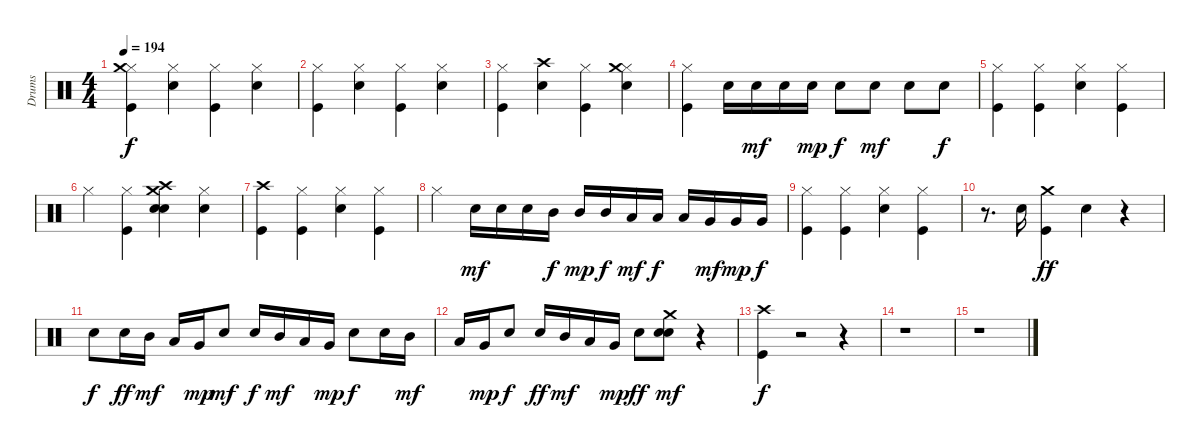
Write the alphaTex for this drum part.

\track ("Drums" "Drums") {instrument percussion}
\staff {score}
\articulation defaults
\ts (4 4)
\tempo 194
\clef neutral
\ks c
("Kick (hit)" "Hi-Hat (closed)" "Crash medium (hit)").4{dy f} ("Snare (hit) 2" "Hi-Hat (closed)").4 ("Kick (hit)" "Hi-Hat (closed)").4 ("Snare (hit) 2" "Hi-Hat (closed)").4 |
("Kick (hit)" "Hi-Hat (closed)").4 ("Snare (hit) 2" "Hi-Hat (closed)").4 ("Kick (hit)" "Hi-Hat (closed)").4 ("Snare (hit) 2" "Hi-Hat (closed)").4 |
("Kick (hit)" "Hi-Hat (closed)").4 ("Snare (hit) 2" "Crash high (hit)").4 ("Kick (hit)" "Hi-Hat (closed)").4 ("Snare (hit) 2" "Hi-Hat (closed)" "Crash medium (hit)").4 |
("Kick (hit)" "Hi-Hat (closed)").4 "Snare (hit) 2".16 "Snare (hit) 2".16{dy mf} "Snare (hit) 2".16 "Snare (hit) 2".16{dy mp} "Snare (hit) 2".8{dy f} "Snare (hit) 2".8{dy mf} "Snare (hit) 2".8 "Snare (hit) 2".8{dy f} |
("Kick (hit)" "Hi-Hat (closed)").4 ("Kick (hit)" "Hi-Hat (closed)").4 ("Snare (hit) 2" "Hi-Hat (closed)").4 ("Kick (hit)" "Hi-Hat (closed)").4 |
"Hi-Hat (closed)".4 ("Kick (hit)" "Hi-Hat (closed)").4 ("Snare (hit) 2" "Snare (hit)" "Crash medium (hit)" "Crash high (hit)").4 ("Snare (hit) 2" "Hi-Hat (closed)").4 |
("Kick (hit)" "Crash high (hit)").4 ("Kick (hit)" "Hi-Hat (closed)").4 ("Snare (hit) 2" "Hi-Hat (closed)").4 ("Kick (hit)" "Hi-Hat (closed)").4 |
"Hi-Hat (closed)".4 "Snare (hit) 2".16{dy mf} "Snare (hit) 2".16 "Snare (hit) 2".16 "Mid Tom (hit)".16{dy f} "Mid Tom (hit)".16{dy mp} "Mid Tom (hit)".16{dy f} "Low Tom (hit)".16{dy mf} "Low Tom (hit)".16{dy f} "Low Tom (hit)".16 "Very Low Tom (hit)".16{dy mf} "Very Low Tom (hit)".16{dy mp} "Very Low Tom (hit)".16{dy f} |
("Kick (hit)" "Hi-Hat (closed)").4 ("Kick (hit)" "Hi-Hat (closed)").4 ("Snare (hit) 2" "Hi-Hat (closed)").4 ("Kick (hit)" "Hi-Hat (closed)").4 |
r.8{d} "Snare (hit) 2".16 ("Kick (hit)" "Crash medium (hit)").4{dy ff} "Snare (hit) 2".4 r.4 |
"Snare (hit) 2".8{dy f} "Snare (hit) 2".16{dy ff} "Mid Tom (hit)".16{dy mf} "Low Tom (hit)".16 "Very Low Tom (hit)".16{dy mp} "Snare (hit) 2".8{dy mf} "Snare (hit) 2".16{dy f} "Mid Tom (hit)".16{dy mf} "Low Tom (hit)".16 "Very Low Tom (hit)".16{dy mp} "Snare (hit) 2".8{dy f} "Snare (hit) 2".16 "Mid Tom (hit)".16{dy mf} |
"Low Tom (hit)".16 "Very Low Tom (hit)".16{dy mp} "Snare (hit) 2".8{dy f} "Snare (hit) 2".16{dy ff} "Mid Tom (hit)".16{dy mf} "Low Tom (hit)".16 "Very Low Tom (hit)".16{dy mp} "Snare (hit) 2".8{dy ff} ("Snare (hit)" "Snare (hit) 2" "Crash medium (hit)").8{dy mf} r.4 |
("Kick (hit)" "Crash high (hit)").4{dy f} r.2 r.4 |
r.1 |
r.1
